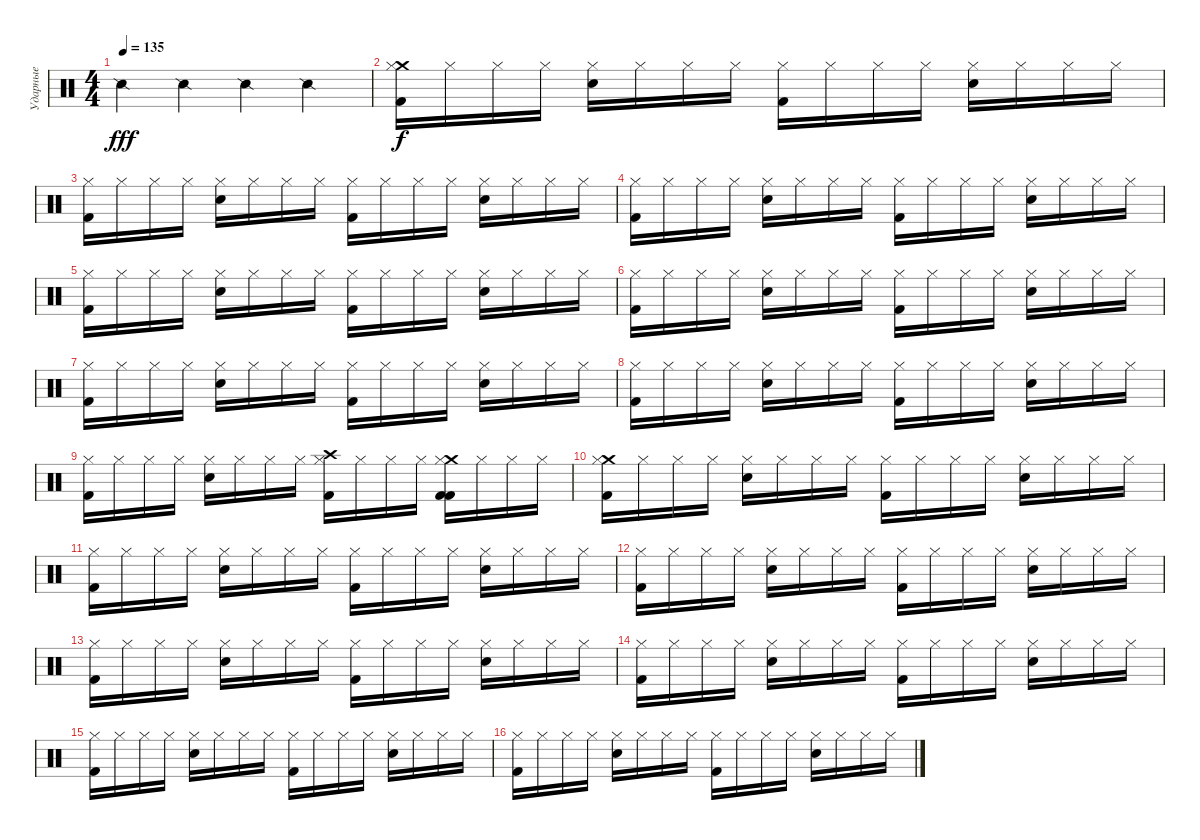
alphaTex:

\track ("Ударные" "Ударные") {instrument percussion}
\staff {score}
\articulation defaults
\ts (4 4)
\tempo 135
\clef neutral
\ks c "Snare (side stick) 2".4{dy fff} "Snare (side stick) 2".4 "Snare (side stick) 2".4 "Snare (side stick) 2".4
|
("Crash medium (hit)" "Hi-Hat (closed)" "Kick (hit) 2").16{dy f} "Hi-Hat (closed)".16 "Hi-Hat (closed)".16 "Hi-Hat (closed)".16 ("Hi-Hat (closed)" "Snare (hit) 2").16 "Hi-Hat (closed)".16 "Hi-Hat (closed)".16 "Hi-Hat (closed)".16 ("Hi-Hat (closed)" "Kick (hit) 2").16 "Hi-Hat (closed)".16 "Hi-Hat (closed)".16 "Hi-Hat (closed)".16 ("Hi-Hat (closed)" "Snare (hit) 2").16 "Hi-Hat (closed)".16 "Hi-Hat (closed)".16 "Hi-Hat (closed)".16 |
("Hi-Hat (closed)" "Kick (hit) 2").16 "Hi-Hat (closed)".16 "Hi-Hat (closed)".16 "Hi-Hat (closed)".16 ("Hi-Hat (closed)" "Snare (hit) 2").16 "Hi-Hat (closed)".16 "Hi-Hat (closed)".16 "Hi-Hat (closed)".16 ("Hi-Hat (closed)" "Kick (hit) 2").16 "Hi-Hat (closed)".16 "Hi-Hat (closed)".16 "Hi-Hat (closed)".16 ("Hi-Hat (closed)" "Snare (hit) 2").16 "Hi-Hat (closed)".16 "Hi-Hat (closed)".16 "Hi-Hat (closed)".16 |
("Hi-Hat (closed)" "Kick (hit) 2").16 "Hi-Hat (closed)".16 "Hi-Hat (closed)".16 "Hi-Hat (closed)".16 ("Hi-Hat (closed)" "Snare (hit) 2").16 "Hi-Hat (closed)".16 "Hi-Hat (closed)".16 "Hi-Hat (closed)".16 ("Hi-Hat (closed)" "Kick (hit) 2").16 "Hi-Hat (closed)".16 "Hi-Hat (closed)".16 "Hi-Hat (closed)".16 ("Hi-Hat (closed)" "Snare (hit) 2").16 "Hi-Hat (closed)".16 "Hi-Hat (closed)".16 "Hi-Hat (closed)".16 |
("Hi-Hat (closed)" "Kick (hit) 2").16 "Hi-Hat (closed)".16 "Hi-Hat (closed)".16 "Hi-Hat (closed)".16 ("Hi-Hat (closed)" "Snare (hit) 2").16 "Hi-Hat (closed)".16 "Hi-Hat (closed)".16 "Hi-Hat (closed)".16 ("Hi-Hat (closed)" "Kick (hit) 2").16 "Hi-Hat (closed)".16 "Hi-Hat (closed)".16 "Hi-Hat (closed)".16 ("Hi-Hat (closed)" "Snare (hit) 2").16 "Hi-Hat (closed)".16 "Hi-Hat (closed)".16 "Hi-Hat (closed)".16 |
("Hi-Hat (closed)" "Kick (hit) 2").16 "Hi-Hat (closed)".16 "Hi-Hat (closed)".16 "Hi-Hat (closed)".16 ("Hi-Hat (closed)" "Snare (hit) 2").16 "Hi-Hat (closed)".16 "Hi-Hat (closed)".16 "Hi-Hat (closed)".16 ("Hi-Hat (closed)" "Kick (hit) 2").16 "Hi-Hat (closed)".16 "Hi-Hat (closed)".16 "Hi-Hat (closed)".16 ("Hi-Hat (closed)" "Snare (hit) 2").16 "Hi-Hat (closed)".16 "Hi-Hat (closed)".16 "Hi-Hat (closed)".16 |
("Hi-Hat (closed)" "Kick (hit) 2").16 "Hi-Hat (closed)".16 "Hi-Hat (closed)".16 "Hi-Hat (closed)".16 ("Hi-Hat (closed)" "Snare (hit) 2").16 "Hi-Hat (closed)".16 "Hi-Hat (closed)".16 "Hi-Hat (closed)".16 ("Hi-Hat (closed)" "Kick (hit) 2").16 "Hi-Hat (closed)".16 "Hi-Hat (closed)".16 "Hi-Hat (closed)".16 ("Hi-Hat (closed)" "Snare (hit) 2").16 "Hi-Hat (closed)".16 "Hi-Hat (closed)".16 "Hi-Hat (closed)".16 |
("Hi-Hat (closed)" "Kick (hit) 2").16 "Hi-Hat (closed)".16 "Hi-Hat (closed)".16 "Hi-Hat (closed)".16 ("Hi-Hat (closed)" "Snare (hit) 2").16 "Hi-Hat (closed)".16 "Hi-Hat (closed)".16 "Hi-Hat (closed)".16 ("Hi-Hat (closed)" "Kick (hit) 2").16 "Hi-Hat (closed)".16 "Hi-Hat (closed)".16 "Hi-Hat (closed)".16 ("Hi-Hat (closed)" "Snare (hit) 2").16 "Hi-Hat (closed)".16 "Hi-Hat (closed)".16 "Hi-Hat (closed)".16 |
("Hi-Hat (closed)" "Kick (hit) 2").16 "Hi-Hat (closed)".16 "Hi-Hat (closed)".16 "Hi-Hat (closed)".16 ("Hi-Hat (closed)" "Snare (hit) 2").16 "Hi-Hat (closed)".16 "Hi-Hat (closed)".16 "Hi-Hat (closed)".16 ("Crash high (hit)" "Hi-Hat (closed)" "Kick (hit) 2").16 "Hi-Hat (closed)".16 "Hi-Hat (closed)".16 "Hi-Hat (closed)".16 ("Crash medium (hit)" "Hi-Hat (closed)" "Kick (hit) 2" "Kick (hit) 2").16 "Hi-Hat (closed)".16 "Hi-Hat (closed)".16 "Hi-Hat (closed)".16 |
("Crash medium (hit)" "Hi-Hat (closed)" "Kick (hit) 2").16 "Hi-Hat (closed)".16 "Hi-Hat (closed)".16 "Hi-Hat (closed)".16 ("Hi-Hat (closed)" "Snare (hit) 2").16 "Hi-Hat (closed)".16 "Hi-Hat (closed)".16 "Hi-Hat (closed)".16 ("Hi-Hat (closed)" "Kick (hit) 2").16 "Hi-Hat (closed)".16 "Hi-Hat (closed)".16 "Hi-Hat (closed)".16 ("Hi-Hat (closed)" "Snare (hit) 2").16 "Hi-Hat (closed)".16 "Hi-Hat (closed)".16 "Hi-Hat (closed)".16 |
("Hi-Hat (closed)" "Kick (hit) 2").16 "Hi-Hat (closed)".16 "Hi-Hat (closed)".16 "Hi-Hat (closed)".16 ("Hi-Hat (closed)" "Snare (hit) 2").16 "Hi-Hat (closed)".16 "Hi-Hat (closed)".16 "Hi-Hat (closed)".16 ("Hi-Hat (closed)" "Kick (hit) 2").16 "Hi-Hat (closed)".16 "Hi-Hat (closed)".16 "Hi-Hat (closed)".16 ("Hi-Hat (closed)" "Snare (hit) 2").16 "Hi-Hat (closed)".16 "Hi-Hat (closed)".16 "Hi-Hat (closed)".16 |
("Hi-Hat (closed)" "Kick (hit) 2").16 "Hi-Hat (closed)".16 "Hi-Hat (closed)".16 "Hi-Hat (closed)".16 ("Hi-Hat (closed)" "Snare (hit) 2").16 "Hi-Hat (closed)".16 "Hi-Hat (closed)".16 "Hi-Hat (closed)".16 ("Hi-Hat (closed)" "Kick (hit) 2").16 "Hi-Hat (closed)".16 "Hi-Hat (closed)".16 "Hi-Hat (closed)".16 ("Hi-Hat (closed)" "Snare (hit) 2").16 "Hi-Hat (closed)".16 "Hi-Hat (closed)".16 "Hi-Hat (closed)".16 |
("Hi-Hat (closed)" "Kick (hit) 2").16 "Hi-Hat (closed)".16 "Hi-Hat (closed)".16 "Hi-Hat (closed)".16 ("Hi-Hat (closed)" "Snare (hit) 2").16 "Hi-Hat (closed)".16 "Hi-Hat (closed)".16 "Hi-Hat (closed)".16 ("Hi-Hat (closed)" "Kick (hit) 2").16 "Hi-Hat (closed)".16 "Hi-Hat (closed)".16 "Hi-Hat (closed)".16 ("Hi-Hat (closed)" "Snare (hit) 2").16 "Hi-Hat (closed)".16 "Hi-Hat (closed)".16 "Hi-Hat (closed)".16 |
("Hi-Hat (closed)" "Kick (hit) 2").16 "Hi-Hat (closed)".16 "Hi-Hat (closed)".16 "Hi-Hat (closed)".16 ("Hi-Hat (closed)" "Snare (hit) 2").16 "Hi-Hat (closed)".16 "Hi-Hat (closed)".16 "Hi-Hat (closed)".16 ("Hi-Hat (closed)" "Kick (hit) 2").16 "Hi-Hat (closed)".16 "Hi-Hat (closed)".16 "Hi-Hat (closed)".16 ("Hi-Hat (closed)" "Snare (hit) 2").16 "Hi-Hat (closed)".16 "Hi-Hat (closed)".16 "Hi-Hat (closed)".16 |
("Hi-Hat (closed)" "Kick (hit) 2").16 "Hi-Hat (closed)".16 "Hi-Hat (closed)".16 "Hi-Hat (closed)".16 ("Hi-Hat (closed)" "Snare (hit) 2").16 "Hi-Hat (closed)".16 "Hi-Hat (closed)".16 "Hi-Hat (closed)".16 ("Hi-Hat (closed)" "Kick (hit) 2").16 "Hi-Hat (closed)".16 "Hi-Hat (closed)".16 "Hi-Hat (closed)".16 ("Hi-Hat (closed)" "Snare (hit) 2").16 "Hi-Hat (closed)".16 "Hi-Hat (closed)".16 "Hi-Hat (closed)".16 |
("Hi-Hat (closed)" "Kick (hit) 2").16 "Hi-Hat (closed)".16 "Hi-Hat (closed)".16 "Hi-Hat (closed)".16 ("Hi-Hat (closed)" "Snare (hit) 2").16 "Hi-Hat (closed)".16 "Hi-Hat (closed)".16 "Hi-Hat (closed)".16 ("Hi-Hat (closed)" "Kick (hit) 2").16 "Hi-Hat (closed)".16 "Hi-Hat (closed)".16 "Hi-Hat (closed)".16 ("Hi-Hat (closed)" "Snare (hit) 2").16 "Hi-Hat (closed)".16 "Hi-Hat (closed)".16 "Hi-Hat (closed)".16
